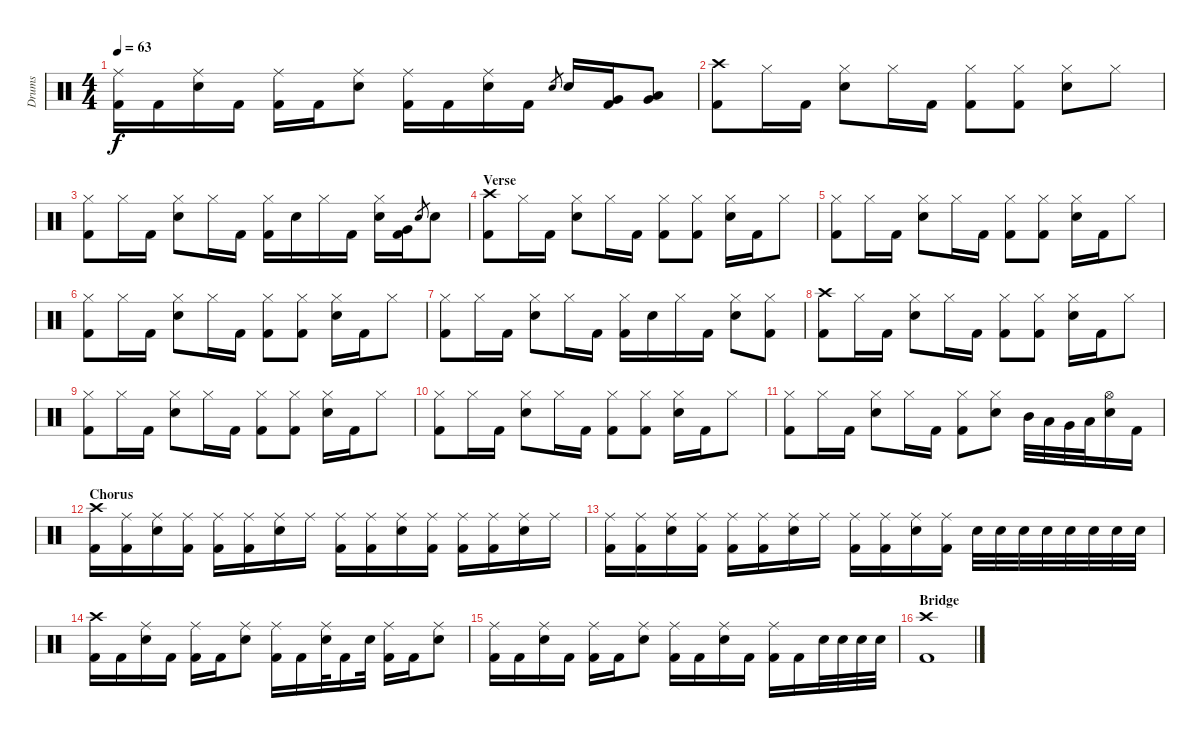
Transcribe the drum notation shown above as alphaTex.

\track ("Drums" "Drums") {instrument percussion}
\staff {score}
\articulation defaults
\ts (4 4)
\tempo 63
\clef neutral
\ks c
("Ride (middle)" "Kick (hit) 2").16{dy f} "Kick (hit) 2".16 ("Ride (middle)" "Electric Snare (hit)").16 "Kick (hit) 2".16 ("Ride (middle)" "Kick (hit) 2").16 "Kick (hit) 2".16 ("Ride (middle)" "Electric Snare (hit)").8 ("Ride (middle)" "Kick (hit) 2").16 "Kick (hit) 2".16 ("Ride (middle)" "Electric Snare (hit)").16 "Kick (hit) 2".16 "Electric Snare (hit)".8{gr} "Electric Snare (hit)".16 ("Very Low Tom (hit)" "Kick (hit) 2").16 ("Very Low Tom (hit)" "Low Floor Tom (hit)").8 |
("Crash high (hit)" "Kick (hit) 2").8 "Hi-Hat (closed)".16 "Kick (hit) 2".16 ("Hi-Hat (closed)" "Electric Snare (hit)").8 "Hi-Hat (closed)".16 "Kick (hit) 2".16 ("Hi-Hat (closed)" "Kick (hit) 2").8 ("Hi-Hat (closed)" "Kick (hit) 2").8 ("Hi-Hat (closed)" "Electric Snare (hit)").8 "Hi-Hat (closed)".8 |
("Hi-Hat (closed)" "Kick (hit) 2").8 "Hi-Hat (closed)".16 "Kick (hit) 2".16 ("Hi-Hat (closed)" "Electric Snare (hit)").8 "Hi-Hat (closed)".16 "Kick (hit) 2".16 ("Hi-Hat (closed)" "Kick (hit) 2").16 "Electric Snare (hit)".16 "Hi-Hat (closed)".16 "Kick (hit) 2".16 ("Hi-Hat (closed)" "Electric Snare (hit)").16 ("Very Low Tom (hit)" "Kick (hit) 2").16 "Electric Snare (hit)".8{gr} "Electric Snare (hit)".8 |
\section ("" "Verse")
("Crash high (hit)" "Kick (hit) 2").8 "Hi-Hat (closed)".16 "Kick (hit) 2".16 ("Hi-Hat (closed)" "Electric Snare (hit)").8 "Hi-Hat (closed)".16 "Kick (hit) 2".16 ("Hi-Hat (closed)" "Kick (hit) 2").8 ("Hi-Hat (closed)" "Kick (hit) 2").8 ("Hi-Hat (closed)" "Electric Snare (hit)").16 "Kick (hit) 2".16 "Hi-Hat (closed)".8 |
("Hi-Hat (closed)" "Kick (hit) 2").8 "Hi-Hat (closed)".16 "Kick (hit) 2".16 ("Hi-Hat (closed)" "Electric Snare (hit)").8 "Hi-Hat (closed)".16 "Kick (hit) 2".16 ("Hi-Hat (closed)" "Kick (hit) 2").8 ("Hi-Hat (closed)" "Kick (hit) 2").8 ("Hi-Hat (closed)" "Electric Snare (hit)").16 "Kick (hit) 2".16 "Hi-Hat (closed)".8 |
("Hi-Hat (closed)" "Kick (hit) 2").8 "Hi-Hat (closed)".16 "Kick (hit) 2".16 ("Hi-Hat (closed)" "Electric Snare (hit)").8 "Hi-Hat (closed)".16 "Kick (hit) 2".16 ("Hi-Hat (closed)" "Kick (hit) 2").8 ("Hi-Hat (closed)" "Kick (hit) 2").8 ("Hi-Hat (closed)" "Electric Snare (hit)").16 "Kick (hit) 2".16 "Hi-Hat (closed)".8 |
("Hi-Hat (closed)" "Kick (hit) 2").8 "Hi-Hat (closed)".16 "Kick (hit) 2".16 ("Hi-Hat (closed)" "Electric Snare (hit)").8 "Hi-Hat (closed)".16 "Kick (hit) 2".16 ("Hi-Hat (closed)" "Kick (hit) 2").16 "Electric Snare (hit)".16 "Hi-Hat (closed)".16 "Kick (hit) 2".16 ("Hi-Hat (closed)" "Electric Snare (hit)").8 ("Hi-Hat (closed)" "Kick (hit) 2").8 |
("Crash high (hit)" "Kick (hit) 2").8 "Hi-Hat (closed)".16 "Kick (hit) 2".16 ("Hi-Hat (closed)" "Electric Snare (hit)").8 "Hi-Hat (closed)".16 "Kick (hit) 2".16 ("Hi-Hat (closed)" "Kick (hit) 2").8 ("Hi-Hat (closed)" "Kick (hit) 2").8 ("Hi-Hat (closed)" "Electric Snare (hit)").16 "Kick (hit) 2".16 "Hi-Hat (closed)".8 |
("Hi-Hat (closed)" "Kick (hit) 2").8 "Hi-Hat (closed)".16 "Kick (hit) 2".16 ("Hi-Hat (closed)" "Electric Snare (hit)").8 "Hi-Hat (closed)".16 "Kick (hit) 2".16 ("Hi-Hat (closed)" "Kick (hit) 2").8 ("Hi-Hat (closed)" "Kick (hit) 2").8 ("Hi-Hat (closed)" "Electric Snare (hit)").16 "Kick (hit) 2".16 "Hi-Hat (closed)".8 |
("Hi-Hat (closed)" "Kick (hit) 2").8 "Hi-Hat (closed)".16 "Kick (hit) 2".16 ("Hi-Hat (closed)" "Electric Snare (hit)").8 "Hi-Hat (closed)".16 "Kick (hit) 2".16 ("Hi-Hat (closed)" "Kick (hit) 2").8 ("Hi-Hat (closed)" "Kick (hit) 2").8 ("Hi-Hat (closed)" "Electric Snare (hit)").16 "Kick (hit) 2".16 "Hi-Hat (closed)".8 |
("Hi-Hat (closed)" "Kick (hit) 2").8 "Hi-Hat (closed)".16 "Kick (hit) 2".16 ("Hi-Hat (closed)" "Electric Snare (hit)").8 "Hi-Hat (closed)".16 "Kick (hit) 2".16 ("Hi-Hat (closed)" "Kick (hit) 2").8 ("Hi-Hat (closed)" "Electric Snare (hit)").8 "Mid Tom (hit)".32 "Low Tom (hit)".32 "Very Low Tom (hit)".32 "Low Floor Tom (hit)".32 ("Hi-Hat (open)" "Snare (hit) 2").16 "Kick (hit) 2".16 |
\section ("" "Chorus")
("Crash high (hit)" "Kick (hit) 2").16 ("Ride (middle)" "Kick (hit) 2").16 ("Ride (middle)" "Electric Snare (hit)").16 ("Ride (middle)" "Kick (hit) 2").16 ("Ride (middle)" "Kick (hit) 2").16 ("Ride (middle)" "Kick (hit) 2").16 ("Ride (middle)" "Electric Snare (hit)").16 "Ride (middle)".16 ("Ride (middle)" "Kick (hit) 2").16 ("Ride (middle)" "Kick (hit) 2").16 ("Ride (middle)" "Electric Snare (hit)").16 ("Ride (middle)" "Kick (hit) 2").16 ("Ride (middle)" "Kick (hit) 2").16 ("Ride (middle)" "Kick (hit) 2").16 ("Ride (middle)" "Electric Snare (hit)").16 "Ride (middle)".16 |
("Ride (middle)" "Kick (hit) 2").16 ("Ride (middle)" "Kick (hit) 2").16 ("Ride (middle)" "Electric Snare (hit)").16 ("Ride (middle)" "Kick (hit) 2").16 ("Ride (middle)" "Kick (hit) 2").16 ("Ride (middle)" "Kick (hit) 2").16 ("Ride (middle)" "Electric Snare (hit)").16 "Ride (middle)".16 ("Ride (middle)" "Kick (hit) 2").16 ("Ride (middle)" "Kick (hit) 2").16 ("Ride (middle)" "Electric Snare (hit)").16 ("Ride (middle)" "Kick (hit) 2").16 "Electric Snare (hit)".32 "Electric Snare (hit)".32 "Electric Snare (hit)".32 "Electric Snare (hit)".32 "Electric Snare (hit)".32 "Electric Snare (hit)".32 "Electric Snare (hit)".32 "Electric Snare (hit)".32 |
("Crash high (hit)" "Kick (hit) 2").16 "Kick (hit) 2".16 ("Ride (middle)" "Electric Snare (hit)").16 "Kick (hit) 2".16 ("Ride (middle)" "Kick (hit) 2").16 "Kick (hit) 2".16 ("Ride (middle)" "Electric Snare (hit)").8 ("Ride (middle)" "Kick (hit) 2").16 "Kick (hit) 2".16 ("Ride (middle)" "Electric Snare (hit)").32 "Kick (hit) 2".16 "Electric Snare (hit)".32 ("Ride (middle)" "Kick (hit) 2").16 "Kick (hit) 2".16 ("Ride (middle)" "Electric Snare (hit)").8 |
("Ride (middle)" "Kick (hit) 2").16 "Kick (hit) 2".16 ("Ride (middle)" "Electric Snare (hit)").16 "Kick (hit) 2".16 ("Ride (middle)" "Kick (hit) 2").16 "Kick (hit) 2".16 ("Ride (middle)" "Electric Snare (hit)").8 ("Ride (middle)" "Kick (hit) 2").16 "Kick (hit) 2".16 ("Ride (middle)" "Electric Snare (hit)").16 "Kick (hit) 2".16 ("Ride (middle)" "Kick (hit) 2").16 "Kick (hit) 2".16 "Electric Snare (hit)".32 "Electric Snare (hit)".32 "Electric Snare (hit)".32 "Electric Snare (hit)".32 |
\section ("" "Bridge")
("Crash high (hit)" "Kick (hit) 2").1
